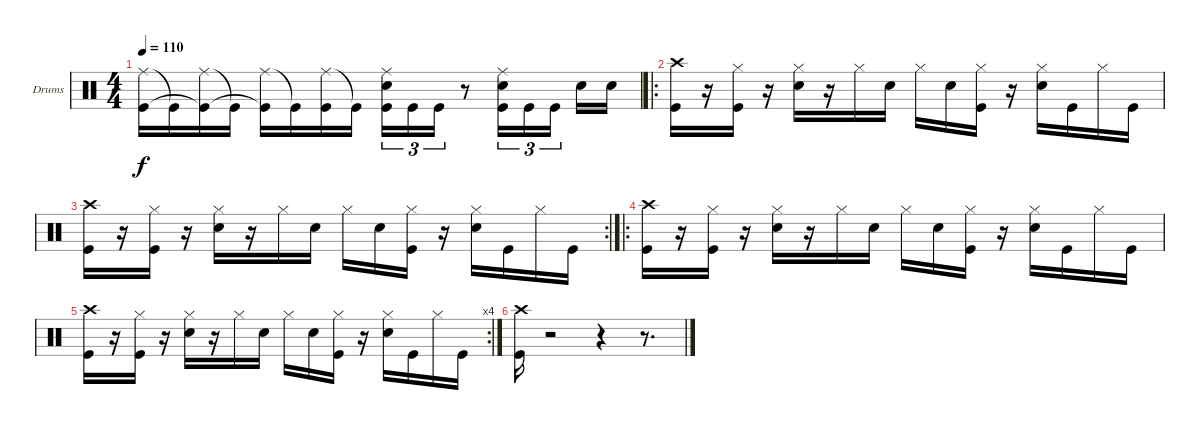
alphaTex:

\defaultSystemsLayout 4
\bracketExtendMode groupsimilarinstruments
\firstSystemTrackNameOrientation horizontal
\otherSystemsTrackNameOrientation horizontal
\track ("Павел Тетерин(Pa$ok)" "Drums") {instrument percussion}
\staff {score}
\articulation defaults
\ts (4 4)
\tempo 110
\clef neutral
\ks c
("Ride (middle)" "Kick (hit)").16{dy f} "Kick (hit)"{t}.16 ("Ride (middle)" "Kick (hit)"{t}).16 "Kick (hit)"{t}.16 ("Ride (middle)" "Kick (hit)"{t}).16 "Kick (hit)"{t}.16 ("Ride (middle)" "Kick (hit)").16 "Kick (hit)"{t}.16 ("Ride (middle)" "Snare (hit) 2" "Kick (hit)").16{tu (3 2)} "Kick (hit)".16{tu (3 2)} "Kick (hit)".16{tu (3 2)} r.8 ("Ride (middle)" "Snare (hit) 2" "Kick (hit)").16{tu (3 2)} "Kick (hit)".16{tu (3 2)} "Kick (hit)".16{tu (3 2)} "Snare (hit) 2".16 "Snare (hit) 2".16 |
\ro
("Crash high (hit)" "Kick (hit)").16 r.16 ("Hi-Hat (closed)" "Kick (hit)").16 r.16 ("Hi-Hat (closed)" "Snare (hit) 2").16 r.16 "Hi-Hat (closed)".16 "Snare (hit) 2".16 "Hi-Hat (closed)".16 "Snare (hit) 2".16 ("Hi-Hat (closed)" "Kick (hit)").16 r.16 ("Hi-Hat (closed)" "Snare (hit) 2").16 "Kick (hit)".16 "Hi-Hat (closed)".16 "Kick (hit)".16 |
\rc 2
("Crash high (hit)" "Kick (hit)").16 r.16 ("Hi-Hat (closed)" "Kick (hit)").16 r.16 ("Hi-Hat (closed)" "Snare (hit) 2").16 r.16 "Hi-Hat (closed)".16 "Snare (hit) 2".16 "Hi-Hat (closed)".16 "Snare (hit) 2".16 ("Hi-Hat (closed)" "Kick (hit)").16 r.16 ("Hi-Hat (closed)" "Snare (hit) 2").16 "Kick (hit)".16 "Hi-Hat (closed)".16 "Kick (hit)".16 |
\ro
("Crash high (hit)" "Kick (hit)").16 r.16 ("Hi-Hat (closed)" "Kick (hit)").16 r.16 ("Hi-Hat (closed)" "Snare (hit) 2").16 r.16 "Hi-Hat (closed)".16 "Snare (hit) 2".16 "Hi-Hat (closed)".16 "Snare (hit) 2".16 ("Hi-Hat (closed)" "Kick (hit)").16 r.16 ("Hi-Hat (closed)" "Snare (hit) 2").16 "Kick (hit)".16 "Hi-Hat (closed)".16 "Kick (hit)".16 |
\rc 4
("Crash high (hit)" "Kick (hit)").16 r.16 ("Hi-Hat (closed)" "Kick (hit)").16 r.16 ("Hi-Hat (closed)" "Snare (hit) 2").16 r.16 "Hi-Hat (closed)".16 "Snare (hit) 2".16 "Hi-Hat (closed)".16 "Snare (hit) 2".16 ("Hi-Hat (closed)" "Kick (hit)").16 r.16 ("Hi-Hat (closed)" "Snare (hit) 2").16 "Kick (hit)".16 "Hi-Hat (closed)".16 "Kick (hit)".16 |
("Crash high (hit)" "Kick (hit)").16 r.2 r.4 r.8{d}
